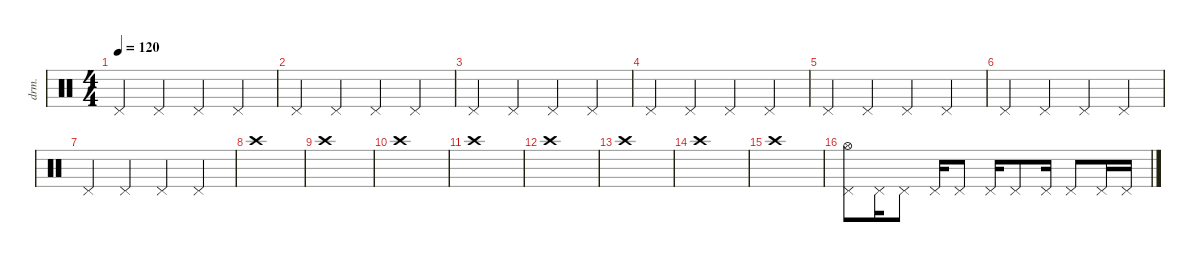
\defaultSystemsLayout 4
\hideDynamics
\bracketExtendMode nobrackets
\otherSystemsTrackNameOrientation horizontal
\track ("Batterie" "drm.") {instrument percussion}
\staff {score}
\articulation defaults
\ts (4 4)
\tempo 120
\clef neutral
\ks c "Pedal Hi-Hat (hit)".4{dy f} "Pedal Hi-Hat (hit)".4 "Pedal Hi-Hat (hit)".4 "Pedal Hi-Hat (hit)".4
|
"Pedal Hi-Hat (hit)".4 "Pedal Hi-Hat (hit)".4 "Pedal Hi-Hat (hit)".4 "Pedal Hi-Hat (hit)".4 |
"Pedal Hi-Hat (hit)".4 "Pedal Hi-Hat (hit)".4 "Pedal Hi-Hat (hit)".4 "Pedal Hi-Hat (hit)".4 |
"Pedal Hi-Hat (hit)".4 "Pedal Hi-Hat (hit)".4 "Pedal Hi-Hat (hit)".4 "Pedal Hi-Hat (hit)".4 |
"Pedal Hi-Hat (hit)".4 "Pedal Hi-Hat (hit)".4 "Pedal Hi-Hat (hit)".4 "Pedal Hi-Hat (hit)".4 |
"Pedal Hi-Hat (hit)".4 "Pedal Hi-Hat (hit)".4 "Pedal Hi-Hat (hit)".4 "Pedal Hi-Hat (hit)".4 |
"Pedal Hi-Hat (hit)".4 "Pedal Hi-Hat (hit)".4 "Pedal Hi-Hat (hit)".4 "Pedal Hi-Hat (hit)".4 |
"Crash high (hit)".1 |
"Crash high (hit)".1 |
"Crash high (hit)".1 |
"Crash high (hit)".1 |
"Crash high (hit)".1 |
"Crash high (hit)".1 |
"Crash high (hit)".1 |
"Crash high (hit)".1 |
("Pedal Hi-Hat (hit)" "Hi-Hat (open)").8 "Pedal Hi-Hat (hit)".16 "Pedal Hi-Hat (hit)".8 "Pedal Hi-Hat (hit)".16 "Pedal Hi-Hat (hit)".8 "Pedal Hi-Hat (hit)".16 "Pedal Hi-Hat (hit)".8 "Pedal Hi-Hat (hit)".16 "Pedal Hi-Hat (hit)".8 "Pedal Hi-Hat (hit)".16 "Pedal Hi-Hat (hit)".16
